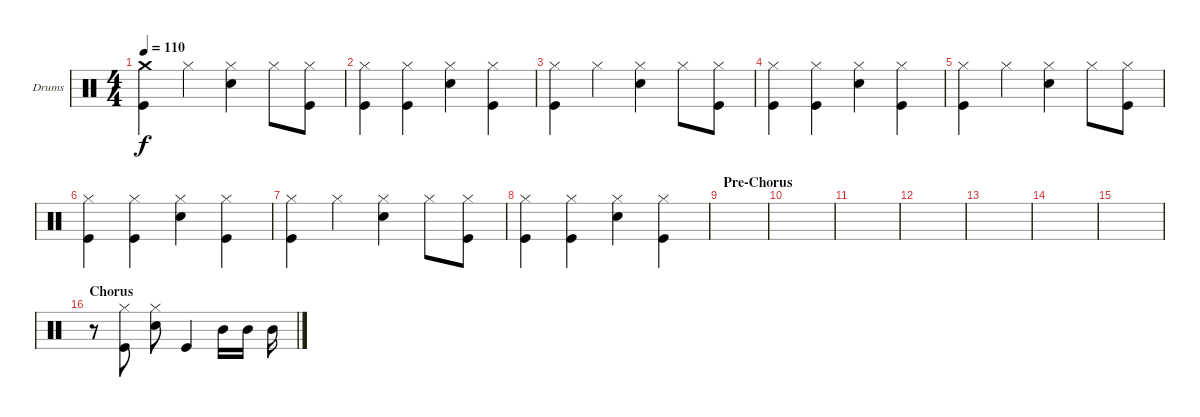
\defaultSystemsLayout 4
\bracketExtendMode groupsimilarinstruments
\firstSystemTrackNameOrientation horizontal
\otherSystemsTrackNameOrientation horizontal
\track ("Drum" "Drums") {instrument percussion}
\staff {score}
\articulation defaults
\ts (4 4)
\tempo 110
\clef neutral
\ks c
("Crash medium (hit)" "Kick (hit)").4{dy f} "Hi-Hat (closed)".4 ("Hi-Hat (closed)" "Snare (hit) 2").4 "Hi-Hat (closed)".8 ("Hi-Hat (closed)" "Kick (hit)").8 |
("Hi-Hat (closed)" "Kick (hit)").4 ("Hi-Hat (closed)" "Kick (hit)").4 ("Hi-Hat (closed)" "Snare (hit) 2").4 ("Hi-Hat (closed)" "Kick (hit)").4 |
("Hi-Hat (closed)" "Kick (hit)").4 "Hi-Hat (closed)".4 ("Hi-Hat (closed)" "Snare (hit) 2").4 "Hi-Hat (closed)".8 ("Hi-Hat (closed)" "Kick (hit)").8 |
("Hi-Hat (closed)" "Kick (hit)").4 ("Hi-Hat (closed)" "Kick (hit)").4 ("Hi-Hat (closed)" "Snare (hit) 2").4 ("Hi-Hat (closed)" "Kick (hit)").4 |
("Hi-Hat (closed)" "Kick (hit)").4 "Hi-Hat (closed)".4 ("Hi-Hat (closed)" "Snare (hit) 2").4 "Hi-Hat (closed)".8 ("Hi-Hat (closed)" "Kick (hit)").8 |
("Hi-Hat (closed)" "Kick (hit)").4 ("Hi-Hat (closed)" "Kick (hit)").4 ("Hi-Hat (closed)" "Snare (hit) 2").4 ("Hi-Hat (closed)" "Kick (hit)").4 |
("Hi-Hat (closed)" "Kick (hit)").4 "Hi-Hat (closed)".4 ("Hi-Hat (closed)" "Snare (hit) 2").4 "Hi-Hat (closed)".8 ("Hi-Hat (closed)" "Kick (hit)").8 |
("Hi-Hat (closed)" "Kick (hit)").4 ("Hi-Hat (closed)" "Kick (hit)").4 ("Hi-Hat (closed)" "Snare (hit) 2").4 ("Hi-Hat (closed)" "Kick (hit)").4 |
\section ("" "Pre-Chorus")
|
|
|
|
|
|
|
\section ("" "Chorus")
r.8 ("Hi-Hat (closed)" "Kick (hit)").8 ("Hi-Hat (closed)" "Snare (hit) 2").8 "Kick (hit)".4 "Mid Tom (hit)".16 "Mid Tom (hit)".16 "Mid Tom (hit)".16
